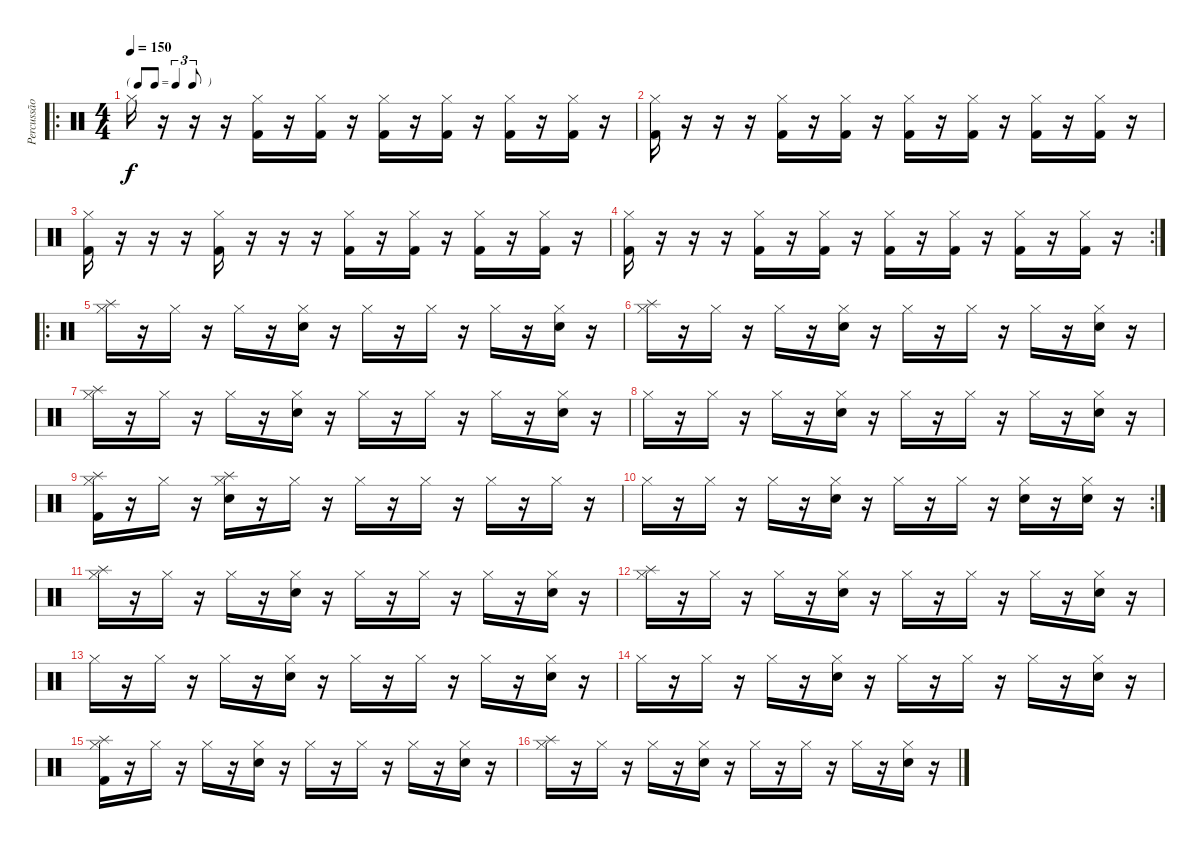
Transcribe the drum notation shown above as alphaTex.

\track ("Percussão" "Percussão") {instrument percussion}
\staff {score}
\articulation defaults
\ro
\ts (4 4)
\tf triplet8th
\tempo 150
\clef neutral
\ks c "Hi-Hat (closed)".16{dy f}
r.16 r.16 r.16 ("Hi-Hat (closed)" "Kick (hit) 2").16 r.16 ("Hi-Hat (closed)" "Kick (hit) 2").16 r.16 ("Hi-Hat (closed)" "Kick (hit) 2").16 r.16 ("Hi-Hat (closed)" "Kick (hit) 2").16 r.16 ("Hi-Hat (closed)" "Kick (hit) 2").16 r.16 ("Hi-Hat (closed)" "Kick (hit) 2").16 r.16 |
("Hi-Hat (closed)" "Kick (hit) 2").16 r.16 r.16 r.16 ("Hi-Hat (closed)" "Kick (hit) 2").16 r.16 ("Hi-Hat (closed)" "Kick (hit) 2").16 r.16 ("Hi-Hat (closed)" "Kick (hit) 2").16 r.16 ("Hi-Hat (closed)" "Kick (hit) 2").16 r.16 ("Hi-Hat (closed)" "Kick (hit) 2").16 r.16 ("Hi-Hat (closed)" "Kick (hit) 2").16 r.16 |
("Hi-Hat (closed)" "Kick (hit) 2").16 r.16 r.16 r.16 ("Hi-Hat (closed)" "Kick (hit) 2").16 r.16 r.16 r.16 ("Hi-Hat (closed)" "Kick (hit) 2").16 r.16 ("Hi-Hat (closed)" "Kick (hit) 2").16 r.16 ("Hi-Hat (closed)" "Kick (hit) 2").16 r.16 ("Hi-Hat (closed)" "Kick (hit) 2").16 r.16 |
\rc 2
("Hi-Hat (closed)" "Kick (hit) 2").16 r.16 r.16 r.16 ("Hi-Hat (closed)" "Kick (hit) 2").16 r.16 ("Hi-Hat (closed)" "Kick (hit) 2").16 r.16 ("Hi-Hat (closed)" "Kick (hit) 2").16 r.16 ("Hi-Hat (closed)" "Kick (hit) 2").16 r.16 ("Hi-Hat (closed)" "Kick (hit) 2").16 r.16 ("Hi-Hat (closed)" "Kick (hit) 2").16 r.16 |
\ro
("Hi-Hat (closed)" "Splash (hit)").16 r.16 "Hi-Hat (closed)".16 r.16 "Hi-Hat (closed)".16 r.16 ("Hi-Hat (closed)" "Snare (hit) 2").16 r.16 "Hi-Hat (closed)".16 r.16 "Hi-Hat (closed)".16 r.16 "Hi-Hat (closed)".16 r.16 ("Hi-Hat (closed)" "Snare (hit) 2").16 r.16 |
("Hi-Hat (closed)" "Splash (hit)").16 r.16 "Hi-Hat (closed)".16 r.16 "Hi-Hat (closed)".16 r.16 ("Hi-Hat (closed)" "Snare (hit) 2").16 r.16 "Hi-Hat (closed)".16 r.16 "Hi-Hat (closed)".16 r.16 "Hi-Hat (closed)".16 r.16 ("Hi-Hat (closed)" "Snare (hit) 2").16 r.16 |
("Hi-Hat (closed)" "Splash (hit)").16 r.16 "Hi-Hat (closed)".16 r.16 "Hi-Hat (closed)".16 r.16 ("Hi-Hat (closed)" "Snare (hit) 2").16 r.16 "Hi-Hat (closed)".16 r.16 "Hi-Hat (closed)".16 r.16 "Hi-Hat (closed)".16 r.16 ("Hi-Hat (closed)" "Snare (hit) 2").16 r.16 |
"Hi-Hat (closed)".16 r.16 "Hi-Hat (closed)".16 r.16 "Hi-Hat (closed)".16 r.16 ("Hi-Hat (closed)" "Snare (hit) 2").16 r.16 "Hi-Hat (closed)".16 r.16 "Hi-Hat (closed)".16 r.16 "Hi-Hat (closed)".16 r.16 ("Hi-Hat (closed)" "Snare (hit) 2").16 r.16 |
("Hi-Hat (closed)" "Kick (hit) 2" "Splash (hit)").16 r.16 "Hi-Hat (closed)".16 r.16 ("Hi-Hat (closed)" "Snare (hit) 2" "Splash (hit)").16 r.16 "Hi-Hat (closed)".16 r.16 "Hi-Hat (closed)".16 r.16 "Hi-Hat (closed)".16 r.16 "Hi-Hat (closed)".16 r.16 "Hi-Hat (closed)".16 r.16 |
\rc 2 "Hi-Hat (closed)".16
r.16 "Hi-Hat (closed)".16 r.16 "Hi-Hat (closed)".16 r.16 ("Hi-Hat (closed)" "Snare (hit) 2").16 r.16 "Hi-Hat (closed)".16 r.16 "Hi-Hat (closed)".16 r.16 ("Hi-Hat (closed)" "Snare (hit) 2").16 r.16 ("Hi-Hat (closed)" "Snare (hit) 2").16 r.16 |
("Hi-Hat (closed)" "Splash (hit)").16 r.16 "Hi-Hat (closed)".16 r.16 "Hi-Hat (closed)".16 r.16 ("Hi-Hat (closed)" "Snare (hit) 2").16 r.16 "Hi-Hat (closed)".16 r.16 "Hi-Hat (closed)".16 r.16 "Hi-Hat (closed)".16 r.16 ("Hi-Hat (closed)" "Snare (hit) 2").16 r.16 |
("Hi-Hat (closed)" "Splash (hit)").16 r.16 "Hi-Hat (closed)".16 r.16 "Hi-Hat (closed)".16 r.16 ("Hi-Hat (closed)" "Snare (hit) 2").16 r.16 "Hi-Hat (closed)".16 r.16 "Hi-Hat (closed)".16 r.16 "Hi-Hat (closed)".16 r.16 ("Hi-Hat (closed)" "Snare (hit) 2").16 r.16 |
"Hi-Hat (closed)".16 r.16 "Hi-Hat (closed)".16 r.16 "Hi-Hat (closed)".16 r.16 ("Hi-Hat (closed)" "Snare (hit) 2").16 r.16 "Hi-Hat (closed)".16 r.16 "Hi-Hat (closed)".16 r.16 "Hi-Hat (closed)".16 r.16 ("Hi-Hat (closed)" "Snare (hit) 2").16 r.16 |
"Hi-Hat (closed)".16 r.16 "Hi-Hat (closed)".16 r.16 "Hi-Hat (closed)".16 r.16 ("Hi-Hat (closed)" "Snare (hit) 2").16 r.16 "Hi-Hat (closed)".16 r.16 "Hi-Hat (closed)".16 r.16 "Hi-Hat (closed)".16 r.16 ("Hi-Hat (closed)" "Snare (hit) 2").16 r.16 |
("Hi-Hat (closed)" "Kick (hit) 2" "Splash (hit)").16 r.16 "Hi-Hat (closed)".16 r.16 "Hi-Hat (closed)".16 r.16 ("Hi-Hat (closed)" "Snare (hit) 2").16 r.16 "Hi-Hat (closed)".16 r.16 "Hi-Hat (closed)".16 r.16 "Hi-Hat (closed)".16 r.16 ("Hi-Hat (closed)" "Snare (hit) 2").16 r.16 |
("Hi-Hat (closed)" "Splash (hit)").16 r.16 "Hi-Hat (closed)".16 r.16 "Hi-Hat (closed)".16 r.16 ("Hi-Hat (closed)" "Snare (hit) 2").16 r.16 "Hi-Hat (closed)".16 r.16 "Hi-Hat (closed)".16 r.16 "Hi-Hat (closed)".16 r.16 ("Hi-Hat (closed)" "Snare (hit) 2").16 r.16
